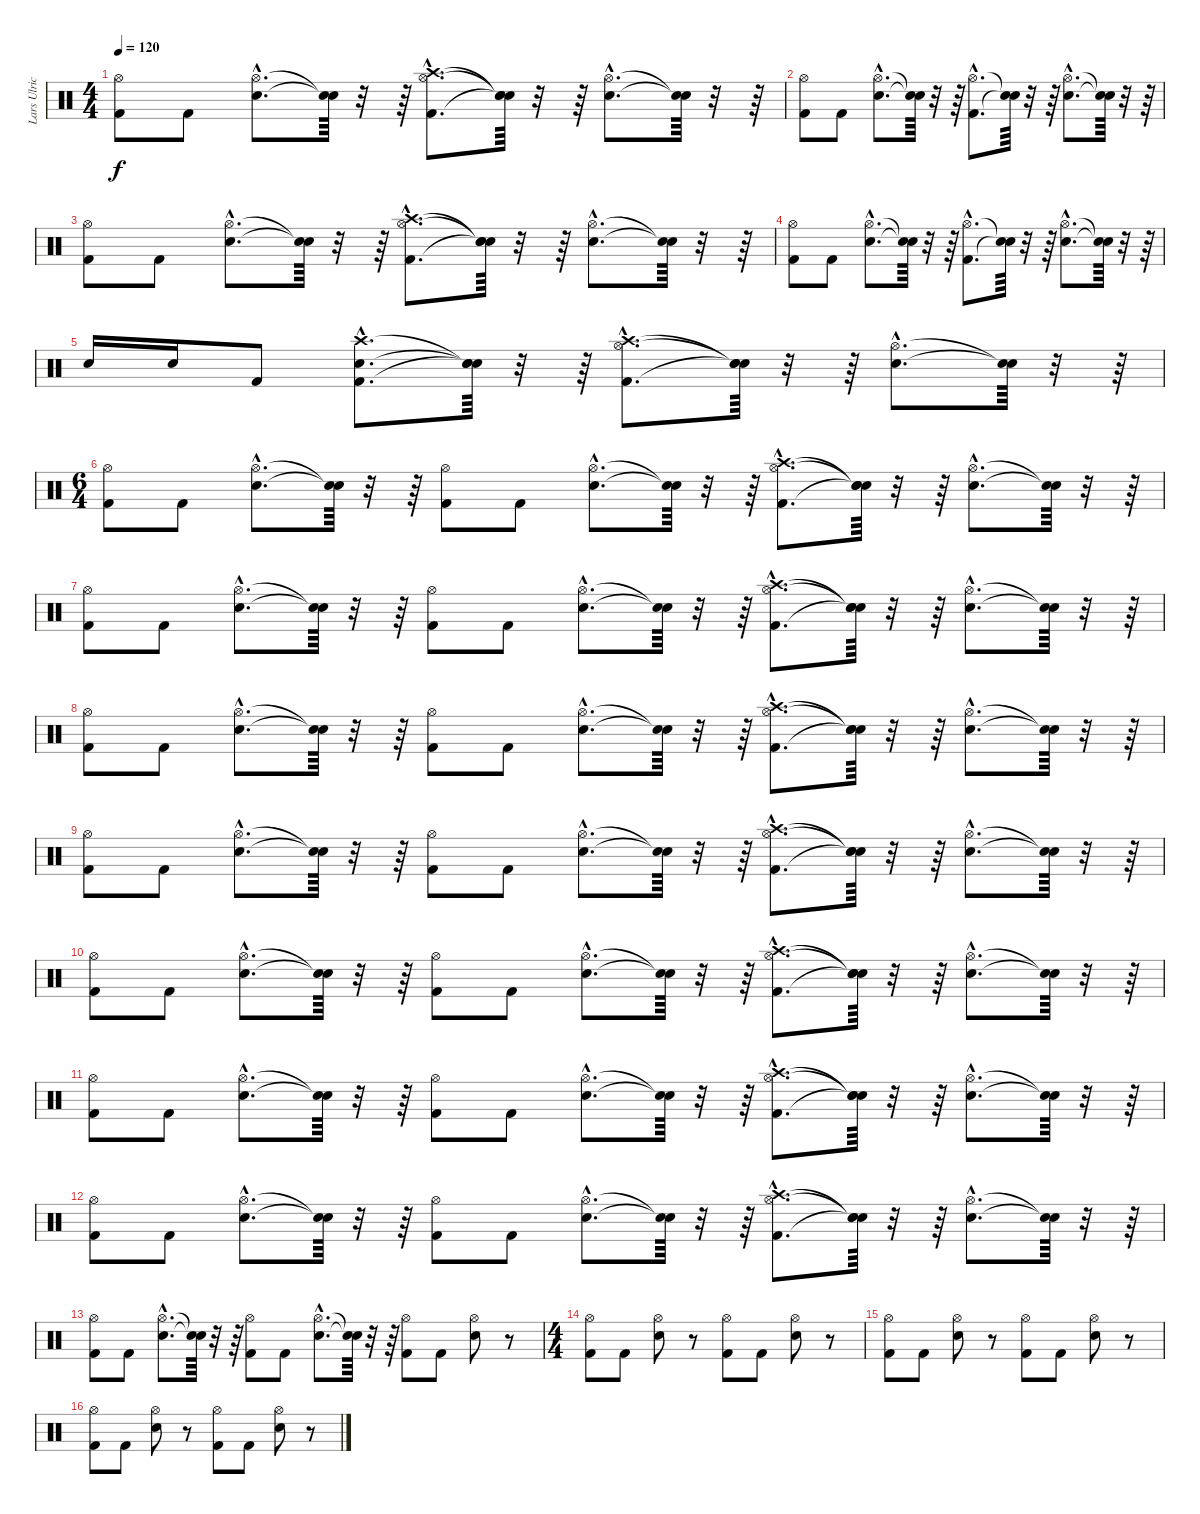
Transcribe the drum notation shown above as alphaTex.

\track ("Lars Ulrich" "Lars Ulric") {instrument percussion}
\staff {score}
\articulation defaults
\ts (4 4)
\tempo 120
\clef neutral
\ks c
("Kick (hit) 2" "Hi-Hat (open)").8{dy f} "Kick (hit) 2".8 ("Snare (hit) 2"{hac} "Hi-Hat (open)"{hac}).8{d} ("Snare (hit)"{t} "Snare (hit)"{t}).64 r.32 r.64 ("Kick (hit) 2"{hac} "Hi-Hat (open)"{hac} "Crash high (hit)"{hac}).8{d} ("Snare (hit)"{t} "Snare (hit)"{t} "Snare (hit)"{t}).64 r.32 r.64 ("Snare (hit) 2"{hac} "Hi-Hat (open)"{hac}).8{d} ("Snare (hit)"{t} "Snare (hit)"{t}).64 r.32 r.64 |
("Kick (hit) 2" "Hi-Hat (open)").8 "Kick (hit) 2".8 ("Snare (hit) 2"{hac} "Hi-Hat (open)"{hac}).8{d} ("Snare (hit)"{t} "Snare (hit)"{t}).64 r.32 r.64 ("Kick (hit) 2"{hac} "Hi-Hat (open)"{hac}).8{d} ("Snare (hit)"{t} "Snare (hit)"{t}).64 r.32 r.64 ("Snare (hit) 2"{hac} "Hi-Hat (open)"{hac}).8{d} ("Snare (hit)"{t} "Snare (hit)"{t}).64 r.32 r.64 |
("Kick (hit) 2" "Hi-Hat (open)").8 "Kick (hit) 2".8 ("Snare (hit) 2"{hac} "Hi-Hat (open)"{hac}).8{d} ("Snare (hit)"{t} "Snare (hit)"{t}).64 r.32 r.64 ("Kick (hit) 2"{hac} "Hi-Hat (open)"{hac} "Crash high (hit)"{hac}).8{d} ("Snare (hit)"{t} "Snare (hit)"{t} "Snare (hit)"{t}).64 r.32 r.64 ("Snare (hit) 2"{hac} "Hi-Hat (open)"{hac}).8{d} ("Snare (hit)"{t} "Snare (hit)"{t}).64 r.32 r.64 |
("Kick (hit) 2" "Hi-Hat (open)").8 "Kick (hit) 2".8 ("Snare (hit) 2"{hac} "Hi-Hat (open)"{hac}).8{d} ("Snare (hit)"{t} "Snare (hit)"{t}).64 r.32 r.64 ("Kick (hit) 2"{hac} "Hi-Hat (open)"{hac}).8{d} ("Snare (hit)"{t} "Snare (hit)"{t}).64 r.32 r.64 ("Snare (hit) 2"{hac} "Hi-Hat (open)"{hac}).8{d} ("Snare (hit)"{t} "Snare (hit)"{t}).64 r.32 r.64 |
"Snare (hit) 2".16 "Snare (hit) 2".16 "Kick (hit) 2".8 ("Kick (hit) 2"{hac} "Snare (hit) 2"{hac} "Crash high (hit)"{hac}).8{d} ("Snare (hit)"{t} "Snare (hit)"{t} "Snare (hit)"{t}).64 r.32 r.64 ("Kick (hit) 2"{hac} "Hi-Hat (open)"{hac} "Crash high (hit)"{hac}).8{d} ("Snare (hit)"{t} "Snare (hit)"{t} "Snare (hit)"{t}).64 r.32 r.64 ("Snare (hit) 2"{hac} "Hi-Hat (open)"{hac}).8{d} ("Snare (hit)"{t} "Snare (hit)"{t}).64 r.32 r.64 |
\ts (6 4)
("Kick (hit) 2" "Hi-Hat (open)").8 "Kick (hit) 2".8 ("Snare (hit) 2"{hac} "Hi-Hat (open)"{hac}).8{d} ("Snare (hit)"{t} "Snare (hit)"{t}).64 r.32 r.64 ("Kick (hit) 2" "Hi-Hat (open)").8 "Kick (hit) 2".8 ("Snare (hit) 2"{hac} "Hi-Hat (open)"{hac}).8{d} ("Snare (hit)"{t} "Snare (hit)"{t}).64 r.32 r.64 ("Kick (hit) 2"{hac} "Hi-Hat (open)"{hac} "Crash high (hit)"{hac}).8{d} ("Snare (hit)"{t} "Snare (hit)"{t} "Snare (hit)"{t}).64 r.32 r.64 ("Snare (hit) 2"{hac} "Hi-Hat (open)"{hac}).8{d} ("Snare (hit)"{t} "Snare (hit)"{t}).64 r.32 r.64 |
("Kick (hit) 2" "Hi-Hat (open)").8 "Kick (hit) 2".8 ("Snare (hit) 2"{hac} "Hi-Hat (open)"{hac}).8{d} ("Snare (hit)"{t} "Snare (hit)"{t}).64 r.32 r.64 ("Kick (hit) 2" "Hi-Hat (open)").8 "Kick (hit) 2".8 ("Snare (hit) 2"{hac} "Hi-Hat (open)"{hac}).8{d} ("Snare (hit)"{t} "Snare (hit)"{t}).64 r.32 r.64 ("Kick (hit) 2"{hac} "Hi-Hat (open)"{hac} "Crash high (hit)"{hac}).8{d} ("Snare (hit)"{t} "Snare (hit)"{t} "Snare (hit)"{t}).64 r.32 r.64 ("Snare (hit) 2"{hac} "Hi-Hat (open)"{hac}).8{d} ("Snare (hit)"{t} "Snare (hit)"{t}).64 r.32 r.64 |
("Kick (hit) 2" "Hi-Hat (open)").8 "Kick (hit) 2".8 ("Snare (hit) 2"{hac} "Hi-Hat (open)"{hac}).8{d} ("Snare (hit)"{t} "Snare (hit)"{t}).64 r.32 r.64 ("Kick (hit) 2" "Hi-Hat (open)").8 "Kick (hit) 2".8 ("Snare (hit) 2"{hac} "Hi-Hat (open)"{hac}).8{d} ("Snare (hit)"{t} "Snare (hit)"{t}).64 r.32 r.64 ("Kick (hit) 2"{hac} "Hi-Hat (open)"{hac} "Crash high (hit)"{hac}).8{d} ("Snare (hit)"{t} "Snare (hit)"{t} "Snare (hit)"{t}).64 r.32 r.64 ("Snare (hit) 2"{hac} "Hi-Hat (open)"{hac}).8{d} ("Snare (hit)"{t} "Snare (hit)"{t}).64 r.32 r.64 |
("Kick (hit) 2" "Hi-Hat (open)").8 "Kick (hit) 2".8 ("Snare (hit) 2"{hac} "Hi-Hat (open)"{hac}).8{d} ("Snare (hit)"{t} "Snare (hit)"{t}).64 r.32 r.64 ("Kick (hit) 2" "Hi-Hat (open)").8 "Kick (hit) 2".8 ("Snare (hit) 2"{hac} "Hi-Hat (open)"{hac}).8{d} ("Snare (hit)"{t} "Snare (hit)"{t}).64 r.32 r.64 ("Kick (hit) 2"{hac} "Hi-Hat (open)"{hac} "Crash high (hit)"{hac}).8{d} ("Snare (hit)"{t} "Snare (hit)"{t} "Snare (hit)"{t}).64 r.32 r.64 ("Snare (hit) 2"{hac} "Hi-Hat (open)"{hac}).8{d} ("Snare (hit)"{t} "Snare (hit)"{t}).64 r.32 r.64 |
("Kick (hit) 2" "Hi-Hat (open)").8 "Kick (hit) 2".8 ("Snare (hit) 2"{hac} "Hi-Hat (open)"{hac}).8{d} ("Snare (hit)"{t} "Snare (hit)"{t}).64 r.32 r.64 ("Kick (hit) 2" "Hi-Hat (open)").8 "Kick (hit) 2".8 ("Snare (hit) 2"{hac} "Hi-Hat (open)"{hac}).8{d} ("Snare (hit)"{t} "Snare (hit)"{t}).64 r.32 r.64 ("Kick (hit) 2"{hac} "Hi-Hat (open)"{hac} "Crash high (hit)"{hac}).8{d} ("Snare (hit)"{t} "Snare (hit)"{t} "Snare (hit)"{t}).64 r.32 r.64 ("Snare (hit) 2"{hac} "Hi-Hat (open)"{hac}).8{d} ("Snare (hit)"{t} "Snare (hit)"{t}).64 r.32 r.64 |
("Kick (hit) 2" "Hi-Hat (open)").8 "Kick (hit) 2".8 ("Snare (hit) 2"{hac} "Hi-Hat (open)"{hac}).8{d} ("Snare (hit)"{t} "Snare (hit)"{t}).64 r.32 r.64 ("Kick (hit) 2" "Hi-Hat (open)").8 "Kick (hit) 2".8 ("Snare (hit) 2"{hac} "Hi-Hat (open)"{hac}).8{d} ("Snare (hit)"{t} "Snare (hit)"{t}).64 r.32 r.64 ("Kick (hit) 2"{hac} "Hi-Hat (open)"{hac} "Crash high (hit)"{hac}).8{d} ("Snare (hit)"{t} "Snare (hit)"{t} "Snare (hit)"{t}).64 r.32 r.64 ("Snare (hit) 2"{hac} "Hi-Hat (open)"{hac}).8{d} ("Snare (hit)"{t} "Snare (hit)"{t}).64 r.32 r.64 |
("Kick (hit) 2" "Hi-Hat (open)").8 "Kick (hit) 2".8 ("Snare (hit) 2"{hac} "Hi-Hat (open)"{hac}).8{d} ("Snare (hit)"{t} "Snare (hit)"{t}).64 r.32 r.64 ("Kick (hit) 2" "Hi-Hat (open)").8 "Kick (hit) 2".8 ("Snare (hit) 2"{hac} "Hi-Hat (open)"{hac}).8{d} ("Snare (hit)"{t} "Snare (hit)"{t}).64 r.32 r.64 ("Kick (hit) 2"{hac} "Hi-Hat (open)"{hac} "Crash high (hit)"{hac}).8{d} ("Snare (hit)"{t} "Snare (hit)"{t} "Snare (hit)"{t}).64 r.32 r.64 ("Snare (hit) 2"{hac} "Hi-Hat (open)"{hac}).8{d} ("Snare (hit)"{t} "Snare (hit)"{t}).64 r.32 r.64 |
("Kick (hit) 2" "Hi-Hat (open)").8 "Kick (hit) 2".8 ("Snare (hit) 2"{hac} "Hi-Hat (open)"{hac}).8{d} ("Snare (hit)"{t} "Snare (hit)"{t}).64 r.32 r.64 ("Kick (hit) 2" "Hi-Hat (open)").8 "Kick (hit) 2".8 ("Snare (hit) 2"{hac} "Hi-Hat (open)"{hac}).8{d} ("Snare (hit)"{t} "Snare (hit)"{t}).64 r.32 r.64 ("Kick (hit) 2" "Hi-Hat (open)").8 "Kick (hit) 2".8 ("Snare (hit) 2" "Hi-Hat (open)").8 r.8 |
\ts (4 4)
("Kick (hit) 2" "Hi-Hat (open)").8 "Kick (hit) 2".8 ("Snare (hit) 2" "Hi-Hat (open)").8 r.8 ("Kick (hit) 2" "Hi-Hat (open)").8 "Kick (hit) 2".8 ("Snare (hit) 2" "Hi-Hat (open)").8 r.8 |
("Kick (hit) 2" "Hi-Hat (open)").8 "Kick (hit) 2".8 ("Snare (hit) 2" "Hi-Hat (open)").8 r.8 ("Kick (hit) 2" "Hi-Hat (open)").8 "Kick (hit) 2".8 ("Snare (hit) 2" "Hi-Hat (open)").8 r.8 |
("Kick (hit) 2" "Hi-Hat (open)").8 "Kick (hit) 2".8 ("Snare (hit) 2" "Hi-Hat (open)").8 r.8 ("Kick (hit) 2" "Hi-Hat (open)").8 "Kick (hit) 2".8 ("Snare (hit) 2" "Hi-Hat (open)").8 r.8
